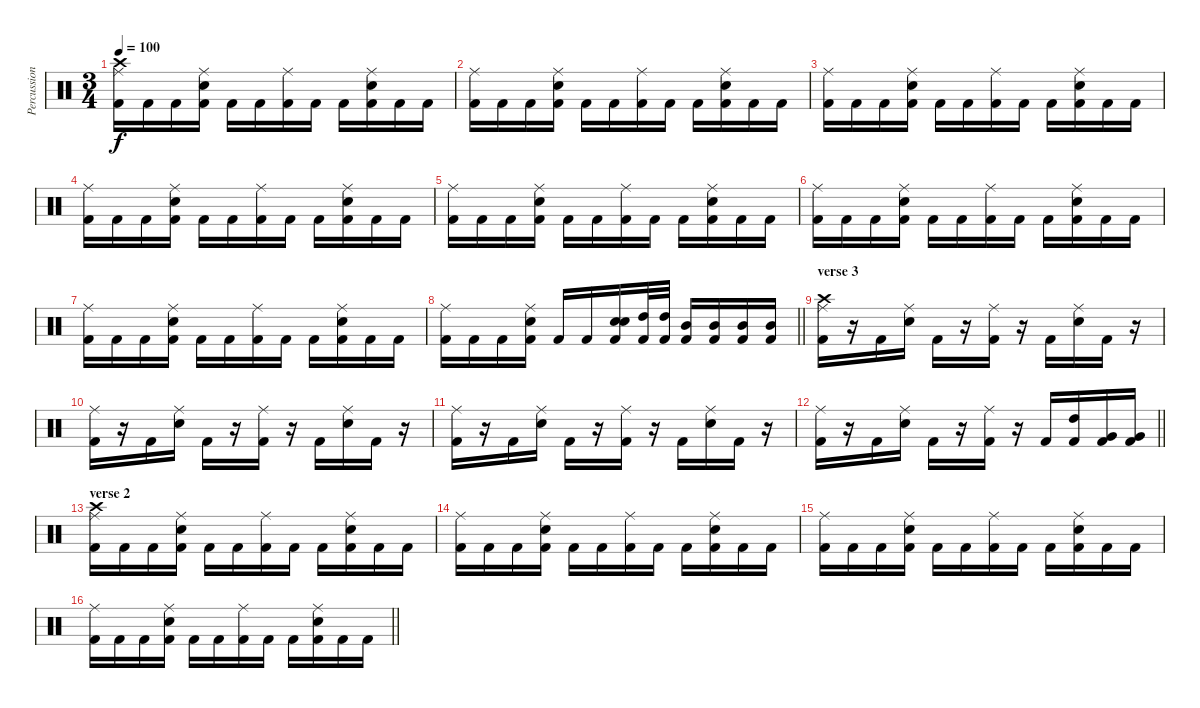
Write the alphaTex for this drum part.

\track ("Percussions" "Percussion") {instrument percussion}
\staff {score}
\articulation defaults
\ts (3 4)
\tempo 100
\clef neutral
\ks c
("Crash high (hit)" "Ride (middle)" "Kick (hit) 2").16{dy f} "Kick (hit) 2".16 "Kick (hit) 2".16 ("Ride (middle)" "Electric Snare (hit)" "Kick (hit) 2").16 "Kick (hit) 2".16 "Kick (hit) 2".16 ("Ride (middle)" "Kick (hit) 2").16 "Kick (hit) 2".16 "Kick (hit) 2".16 ("Ride (middle)" "Electric Snare (hit)" "Kick (hit) 2").16 "Kick (hit) 2".16 "Kick (hit) 2".16 |
("Ride (middle)" "Kick (hit) 2").16 "Kick (hit) 2".16 "Kick (hit) 2".16 ("Ride (middle)" "Electric Snare (hit)" "Kick (hit) 2").16 "Kick (hit) 2".16 "Kick (hit) 2".16 ("Ride (middle)" "Kick (hit) 2").16 "Kick (hit) 2".16 "Kick (hit) 2".16 ("Ride (middle)" "Electric Snare (hit)" "Kick (hit) 2").16 "Kick (hit) 2".16 "Kick (hit) 2".16 |
("Ride (middle)" "Kick (hit) 2").16 "Kick (hit) 2".16 "Kick (hit) 2".16 ("Ride (middle)" "Electric Snare (hit)" "Kick (hit) 2").16 "Kick (hit) 2".16 "Kick (hit) 2".16 ("Ride (middle)" "Kick (hit) 2").16 "Kick (hit) 2".16 "Kick (hit) 2".16 ("Ride (middle)" "Electric Snare (hit)" "Kick (hit) 2").16 "Kick (hit) 2".16 "Kick (hit) 2".16 |
("Ride (middle)" "Kick (hit) 2").16 "Kick (hit) 2".16 "Kick (hit) 2".16 ("Ride (middle)" "Electric Snare (hit)" "Kick (hit) 2").16 "Kick (hit) 2".16 "Kick (hit) 2".16 ("Ride (middle)" "Kick (hit) 2").16 "Kick (hit) 2".16 "Kick (hit) 2".16 ("Ride (middle)" "Electric Snare (hit)" "Kick (hit) 2").16 "Kick (hit) 2".16 "Kick (hit) 2".16 |
("Ride (middle)" "Kick (hit) 2").16 "Kick (hit) 2".16 "Kick (hit) 2".16 ("Ride (middle)" "Electric Snare (hit)" "Kick (hit) 2").16 "Kick (hit) 2".16 "Kick (hit) 2".16 ("Ride (middle)" "Kick (hit) 2").16 "Kick (hit) 2".16 "Kick (hit) 2".16 ("Ride (middle)" "Electric Snare (hit)" "Kick (hit) 2").16 "Kick (hit) 2".16 "Kick (hit) 2".16 |
("Ride (middle)" "Kick (hit) 2").16 "Kick (hit) 2".16 "Kick (hit) 2".16 ("Ride (middle)" "Electric Snare (hit)" "Kick (hit) 2").16 "Kick (hit) 2".16 "Kick (hit) 2".16 ("Ride (middle)" "Kick (hit) 2").16 "Kick (hit) 2".16 "Kick (hit) 2".16 ("Ride (middle)" "Electric Snare (hit)" "Kick (hit) 2").16 "Kick (hit) 2".16 "Kick (hit) 2".16 |
("Ride (middle)" "Kick (hit) 2").16 "Kick (hit) 2".16 "Kick (hit) 2".16 ("Ride (middle)" "Electric Snare (hit)" "Kick (hit) 2").16 "Kick (hit) 2".16 "Kick (hit) 2".16 ("Ride (middle)" "Kick (hit) 2").16 "Kick (hit) 2".16 "Kick (hit) 2".16 ("Ride (middle)" "Electric Snare (hit)" "Kick (hit) 2").16 "Kick (hit) 2".16 "Kick (hit) 2".16 |
\barLineRight lightlight
("Ride (middle)" "Kick (hit) 2").16 "Kick (hit) 2".16 "Kick (hit) 2".16 ("Ride (middle)" "Electric Snare (hit)" "Kick (hit) 2").16 "Kick (hit) 2".16 "Kick (hit) 2".16 ("Electric Snare (hit)" "Electric Snare (hit)" "Kick (hit) 2").16 ("High Tom (hit)" "Kick (hit) 2").32 ("High Tom (hit)" "Kick (hit) 2").32 ("Mid Tom (hit)" "Kick (hit) 2").16 ("Mid Tom (hit)" "Kick (hit) 2").16 ("Mid Tom (hit)" "Kick (hit) 2").16 ("Mid Tom (hit)" "Kick (hit) 2").16 |
\section ("" "verse 3")
("Crash high (hit)" "Ride (middle)" "Kick (hit) 2").16 r.16 "Kick (hit) 2".16 ("Ride (middle)" "Electric Snare (hit)").16 "Kick (hit) 2".16 r.16 ("Ride (middle)" "Kick (hit) 2").16 r.16 "Kick (hit) 2".16 ("Ride (middle)" "Electric Snare (hit)").16 "Kick (hit) 2".16 r.16 |
("Ride (middle)" "Kick (hit) 2").16 r.16 "Kick (hit) 2".16 ("Ride (middle)" "Electric Snare (hit)").16 "Kick (hit) 2".16 r.16 ("Ride (middle)" "Kick (hit) 2").16 r.16 "Kick (hit) 2".16 ("Ride (middle)" "Electric Snare (hit)").16 "Kick (hit) 2".16 r.16 |
("Ride (middle)" "Kick (hit) 2").16 r.16 "Kick (hit) 2".16 ("Ride (middle)" "Electric Snare (hit)").16 "Kick (hit) 2".16 r.16 ("Ride (middle)" "Kick (hit) 2").16 r.16 "Kick (hit) 2".16 ("Ride (middle)" "Electric Snare (hit)").16 "Kick (hit) 2".16 r.16 |
\barLineRight lightlight
("Ride (middle)" "Kick (hit) 2").16 r.16 "Kick (hit) 2".16 ("Ride (middle)" "Electric Snare (hit)").16 "Kick (hit) 2".16 r.16 ("Ride (middle)" "Kick (hit) 2").16 r.16 "Kick (hit) 2".16 ("High Tom (hit)" "Kick (hit) 2").16 ("Very Low Tom (hit)" "Kick (hit) 2").16 ("Very Low Tom (hit)" "Kick (hit) 2").16 |
\section ("" "verse 2")
("Crash high (hit)" "Ride (middle)" "Kick (hit) 2").16 "Kick (hit) 2".16 "Kick (hit) 2".16 ("Ride (middle)" "Electric Snare (hit)" "Kick (hit) 2").16 "Kick (hit) 2".16 "Kick (hit) 2".16 ("Ride (middle)" "Kick (hit) 2").16 "Kick (hit) 2".16 "Kick (hit) 2".16 ("Ride (middle)" "Electric Snare (hit)" "Kick (hit) 2").16 "Kick (hit) 2".16 "Kick (hit) 2".16 |
("Ride (middle)" "Kick (hit) 2").16 "Kick (hit) 2".16 "Kick (hit) 2".16 ("Ride (middle)" "Electric Snare (hit)" "Kick (hit) 2").16 "Kick (hit) 2".16 "Kick (hit) 2".16 ("Ride (middle)" "Kick (hit) 2").16 "Kick (hit) 2".16 "Kick (hit) 2".16 ("Ride (middle)" "Electric Snare (hit)" "Kick (hit) 2").16 "Kick (hit) 2".16 "Kick (hit) 2".16 |
("Ride (middle)" "Kick (hit) 2").16 "Kick (hit) 2".16 "Kick (hit) 2".16 ("Ride (middle)" "Electric Snare (hit)" "Kick (hit) 2").16 "Kick (hit) 2".16 "Kick (hit) 2".16 ("Ride (middle)" "Kick (hit) 2").16 "Kick (hit) 2".16 "Kick (hit) 2".16 ("Ride (middle)" "Electric Snare (hit)" "Kick (hit) 2").16 "Kick (hit) 2".16 "Kick (hit) 2".16 |
\barLineRight lightlight
("Ride (middle)" "Kick (hit) 2").16 "Kick (hit) 2".16 "Kick (hit) 2".16 ("Ride (middle)" "Electric Snare (hit)" "Kick (hit) 2").16 "Kick (hit) 2".16 "Kick (hit) 2".16 ("Ride (middle)" "Kick (hit) 2").16 "Kick (hit) 2".16 "Kick (hit) 2".16 ("Ride (middle)" "Electric Snare (hit)" "Kick (hit) 2").16 "Kick (hit) 2".16 "Kick (hit) 2".16
